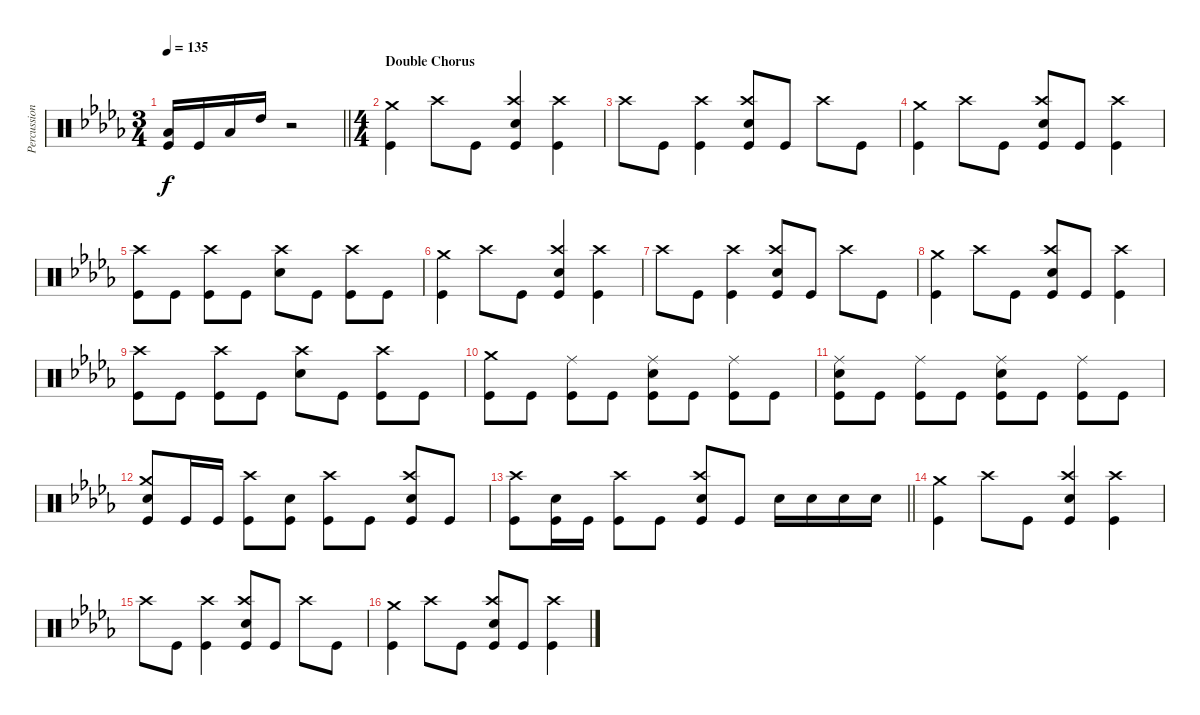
\track ("Percussion" "Percussion") {instrument percussion}
\staff {score}
\articulation defaults
\ts (3 4)
\tempo 135
\clef neutral
\barLineRight lightlight
\ks db
("Low Tom (hit)" "Kick (hit)").16{dy f} "Kick (hit)".16 "Low Tom (hit)".16 "High Tom (hit)".16 r.2 |
\ts (4 4)
\section ("" "Double Chorus")
("Crash medium (hit)" "Kick (hit)").4 "Crash high (hit)".8 "Kick (hit)".8 ("Crash high (hit)" "Electric Snare (hit)" "Kick (hit)").4 ("Crash high (hit)" "Kick (hit)").4 |
"Crash high (hit)".8 "Kick (hit)".8 ("Crash high (hit)" "Kick (hit)").4 ("Crash high (hit)" "Electric Snare (hit)" "Kick (hit)").8 "Kick (hit)".8 "Crash high (hit)".8 "Kick (hit)".8 |
("Crash medium (hit)" "Kick (hit)").4 "Crash high (hit)".8 "Kick (hit)".8 ("Crash high (hit)" "Electric Snare (hit)" "Kick (hit)").8 "Kick (hit)".8 ("Crash high (hit)" "Kick (hit)").4 |
("Crash high (hit)" "Kick (hit)").8 "Kick (hit)".8 ("Crash high (hit)" "Kick (hit)").8 "Kick (hit)".8 ("Crash high (hit)" "Electric Snare (hit)").8 "Kick (hit)".8 ("Crash high (hit)" "Kick (hit)").8 "Kick (hit)".8 |
("Crash medium (hit)" "Kick (hit)").4 "Crash high (hit)".8 "Kick (hit)".8 ("Crash high (hit)" "Electric Snare (hit)" "Kick (hit)").4 ("Crash high (hit)" "Kick (hit)").4 |
"Crash high (hit)".8 "Kick (hit)".8 ("Crash high (hit)" "Kick (hit)").4 ("Crash high (hit)" "Electric Snare (hit)" "Kick (hit)").8 "Kick (hit)".8 "Crash high (hit)".8 "Kick (hit)".8 |
("Crash medium (hit)" "Kick (hit)").4 "Crash high (hit)".8 "Kick (hit)".8 ("Crash high (hit)" "Electric Snare (hit)" "Kick (hit)").8 "Kick (hit)".8 ("Crash high (hit)" "Kick (hit)").4 |
("Crash high (hit)" "Kick (hit)").8 "Kick (hit)".8 ("Crash high (hit)" "Kick (hit)").8 "Kick (hit)".8 ("Crash high (hit)" "Electric Snare (hit)").8 "Kick (hit)".8 ("Crash high (hit)" "Kick (hit)").8 "Kick (hit)".8 |
("Crash medium (hit)" "Kick (hit)").8 "Kick (hit)".8 ("Ride (middle)" "Kick (hit)").8 "Kick (hit)".8 ("Ride (middle)" "Electric Snare (hit)" "Kick (hit)").8 "Kick (hit)".8 ("Ride (middle)" "Kick (hit)").8 "Kick (hit)".8 |
("Ride (middle)" "Electric Snare (hit)" "Kick (hit)").8 "Kick (hit)".8 ("Ride (middle)" "Kick (hit)").8 "Kick (hit)".8 ("Ride (middle)" "Electric Snare (hit)" "Kick (hit)").8 "Kick (hit)".8 ("Ride (middle)" "Kick (hit)").8 "Kick (hit)".8 |
("Crash medium (hit)" "Electric Snare (hit)" "Kick (hit)").8 "Kick (hit)".16 "Kick (hit)".16 ("Crash high (hit)" "Kick (hit)").8 ("Electric Snare (hit)" "Kick (hit)").8 ("Crash high (hit)" "Kick (hit)").8 "Kick (hit)".8 ("Crash high (hit)" "Electric Snare (hit)" "Kick (hit)").8 "Kick (hit)".8 |
\barLineRight lightlight
("Crash high (hit)" "Kick (hit)").8 ("Electric Snare (hit)" "Kick (hit)").16 "Kick (hit)".16 ("Crash high (hit)" "Kick (hit)").8 "Kick (hit)".8 ("Crash high (hit)" "Electric Snare (hit)" "Kick (hit)").8 "Kick (hit)".8 "Electric Snare (hit)".16 "Electric Snare (hit)".16 "Electric Snare (hit)".16 "Electric Snare (hit)".16 |
("Crash medium (hit)" "Kick (hit)").4 "Crash high (hit)".8 "Kick (hit)".8 ("Crash high (hit)" "Electric Snare (hit)" "Kick (hit)").4 ("Crash high (hit)" "Kick (hit)").4 |
"Crash high (hit)".8 "Kick (hit)".8 ("Crash high (hit)" "Kick (hit)").4 ("Crash high (hit)" "Electric Snare (hit)" "Kick (hit)").8 "Kick (hit)".8 "Crash high (hit)".8 "Kick (hit)".8 |
("Crash medium (hit)" "Kick (hit)").4 "Crash high (hit)".8 "Kick (hit)".8 ("Crash high (hit)" "Electric Snare (hit)" "Kick (hit)").8 "Kick (hit)".8 ("Crash high (hit)" "Kick (hit)").4
